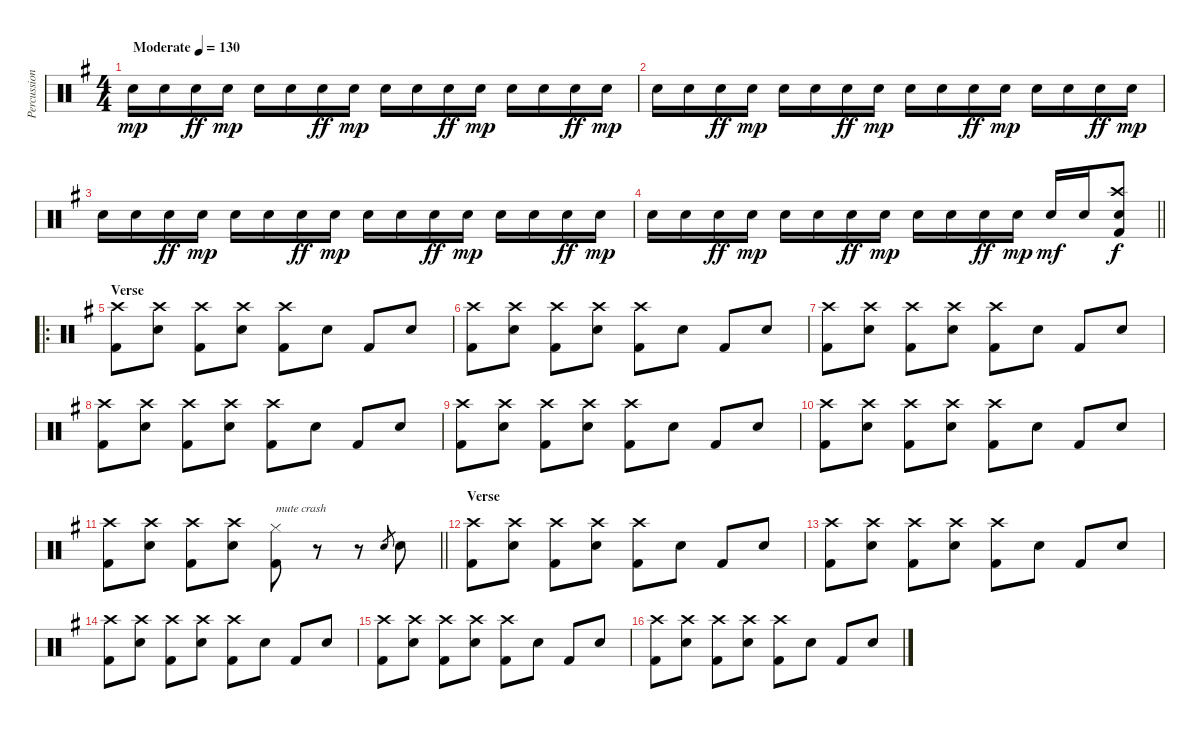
\track ("Percussion" "Percussion") {instrument percussion}
\staff {score}
\articulation defaults
\ts (4 4)
\tempo (130 "Moderate")
\clef neutral
\ks g "Electric Snare (hit)".16{dy mp} "Electric Snare (hit)".16 "Electric Snare (hit)".16{dy ff} "Electric Snare (hit)".16{dy mp} "Electric Snare (hit)".16 "Electric Snare (hit)".16 "Electric Snare (hit)".16{dy ff} "Electric Snare (hit)".16{dy mp} "Electric Snare (hit)".16 "Electric Snare (hit)".16 "Electric Snare (hit)".16{dy ff} "Electric Snare (hit)".16{dy mp} "Electric Snare (hit)".16 "Electric Snare (hit)".16 "Electric Snare (hit)".16{dy ff} "Electric Snare (hit)".16{dy mp}
|
"Electric Snare (hit)".16 "Electric Snare (hit)".16 "Electric Snare (hit)".16{dy ff} "Electric Snare (hit)".16{dy mp} "Electric Snare (hit)".16 "Electric Snare (hit)".16 "Electric Snare (hit)".16{dy ff} "Electric Snare (hit)".16{dy mp} "Electric Snare (hit)".16 "Electric Snare (hit)".16 "Electric Snare (hit)".16{dy ff} "Electric Snare (hit)".16{dy mp} "Electric Snare (hit)".16 "Electric Snare (hit)".16 "Electric Snare (hit)".16{dy ff} "Electric Snare (hit)".16{dy mp} |
"Electric Snare (hit)".16 "Electric Snare (hit)".16 "Electric Snare (hit)".16{dy ff} "Electric Snare (hit)".16{dy mp} "Electric Snare (hit)".16 "Electric Snare (hit)".16 "Electric Snare (hit)".16{dy ff} "Electric Snare (hit)".16{dy mp} "Electric Snare (hit)".16 "Electric Snare (hit)".16 "Electric Snare (hit)".16{dy ff} "Electric Snare (hit)".16{dy mp} "Electric Snare (hit)".16 "Electric Snare (hit)".16 "Electric Snare (hit)".16{dy ff} "Electric Snare (hit)".16{dy mp} |
\barLineRight lightlight "Electric Snare (hit)".16 "Electric Snare (hit)".16 "Electric Snare (hit)".16{dy ff} "Electric Snare (hit)".16{dy mp} "Electric Snare (hit)".16 "Electric Snare (hit)".16 "Electric Snare (hit)".16{dy ff} "Electric Snare (hit)".16{dy mp} "Electric Snare (hit)".16 "Electric Snare (hit)".16 "Electric Snare (hit)".16{dy ff} "Electric Snare (hit)".16{dy mp} "Electric Snare (hit)".16{dy mf} "Electric Snare (hit)".16
("Crash high (hit)" "Electric Snare (hit)" "Kick (hit) 2").8{dy f} |
\ro
\section ("" "Verse")
("Crash high (hit)" "Kick (hit) 2").8 ("Crash high (hit)" "Electric Snare (hit)").8 ("Crash high (hit)" "Kick (hit) 2").8 ("Crash high (hit)" "Electric Snare (hit)").8 ("Crash high (hit)" "Kick (hit) 2").8 "Electric Snare (hit)".8 "Kick (hit) 2".8 "Electric Snare (hit)".8 |
("Crash high (hit)" "Kick (hit) 2").8 ("Crash high (hit)" "Electric Snare (hit)").8 ("Crash high (hit)" "Kick (hit) 2").8 ("Crash high (hit)" "Electric Snare (hit)").8 ("Crash high (hit)" "Kick (hit) 2").8 "Electric Snare (hit)".8 "Kick (hit) 2".8 "Electric Snare (hit)".8 |
("Crash high (hit)" "Kick (hit) 2").8 ("Crash high (hit)" "Electric Snare (hit)").8 ("Crash high (hit)" "Kick (hit) 2").8 ("Crash high (hit)" "Electric Snare (hit)").8 ("Crash high (hit)" "Kick (hit) 2").8 "Electric Snare (hit)".8 "Kick (hit) 2".8 "Electric Snare (hit)".8 |
("Crash high (hit)" "Kick (hit) 2").8 ("Crash high (hit)" "Electric Snare (hit)").8 ("Crash high (hit)" "Kick (hit) 2").8 ("Crash high (hit)" "Electric Snare (hit)").8 ("Crash high (hit)" "Kick (hit) 2").8 "Electric Snare (hit)".8 "Kick (hit) 2".8 "Electric Snare (hit)".8 |
("Crash high (hit)" "Kick (hit) 2").8 ("Crash high (hit)" "Electric Snare (hit)").8 ("Crash high (hit)" "Kick (hit) 2").8 ("Crash high (hit)" "Electric Snare (hit)").8 ("Crash high (hit)" "Kick (hit) 2").8 "Electric Snare (hit)".8 "Kick (hit) 2".8 "Electric Snare (hit)".8 |
("Crash high (hit)" "Kick (hit) 2").8 ("Crash high (hit)" "Electric Snare (hit)").8 ("Crash high (hit)" "Kick (hit) 2").8 ("Crash high (hit)" "Electric Snare (hit)").8 ("Crash high (hit)" "Kick (hit) 2").8 "Electric Snare (hit)".8 "Kick (hit) 2".8 "Electric Snare (hit)".8 |
\barLineRight lightlight
("Crash high (hit)" "Kick (hit) 2").8 ("Crash high (hit)" "Electric Snare (hit)").8 ("Crash high (hit)" "Kick (hit) 2").8 ("Crash high (hit)" "Electric Snare (hit)").8 ("Hi-Hat (closed)" "Kick (hit) 2").8{txt "mute crash"} r.8 r.8 "Electric Snare (hit)".8{gr} "Electric Snare (hit)".8 |
\section ("" "Verse")
("Crash high (hit)" "Kick (hit) 2").8 ("Crash high (hit)" "Electric Snare (hit)").8 ("Crash high (hit)" "Kick (hit) 2").8 ("Crash high (hit)" "Electric Snare (hit)").8 ("Crash high (hit)" "Kick (hit) 2").8 "Electric Snare (hit)".8 "Kick (hit) 2".8 "Electric Snare (hit)".8 |
("Crash high (hit)" "Kick (hit) 2").8 ("Crash high (hit)" "Electric Snare (hit)").8 ("Crash high (hit)" "Kick (hit) 2").8 ("Crash high (hit)" "Electric Snare (hit)").8 ("Crash high (hit)" "Kick (hit) 2").8 "Electric Snare (hit)".8 "Kick (hit) 2".8 "Electric Snare (hit)".8 |
("Crash high (hit)" "Kick (hit) 2").8 ("Crash high (hit)" "Electric Snare (hit)").8 ("Crash high (hit)" "Kick (hit) 2").8 ("Crash high (hit)" "Electric Snare (hit)").8 ("Crash high (hit)" "Kick (hit) 2").8 "Electric Snare (hit)".8 "Kick (hit) 2".8 "Electric Snare (hit)".8 |
("Crash high (hit)" "Kick (hit) 2").8 ("Crash high (hit)" "Electric Snare (hit)").8 ("Crash high (hit)" "Kick (hit) 2").8 ("Crash high (hit)" "Electric Snare (hit)").8 ("Crash high (hit)" "Kick (hit) 2").8 "Electric Snare (hit)".8 "Kick (hit) 2".8 "Electric Snare (hit)".8 |
("Crash high (hit)" "Kick (hit) 2").8 ("Crash high (hit)" "Electric Snare (hit)").8 ("Crash high (hit)" "Kick (hit) 2").8 ("Crash high (hit)" "Electric Snare (hit)").8 ("Crash high (hit)" "Kick (hit) 2").8 "Electric Snare (hit)".8 "Kick (hit) 2".8 "Electric Snare (hit)".8
